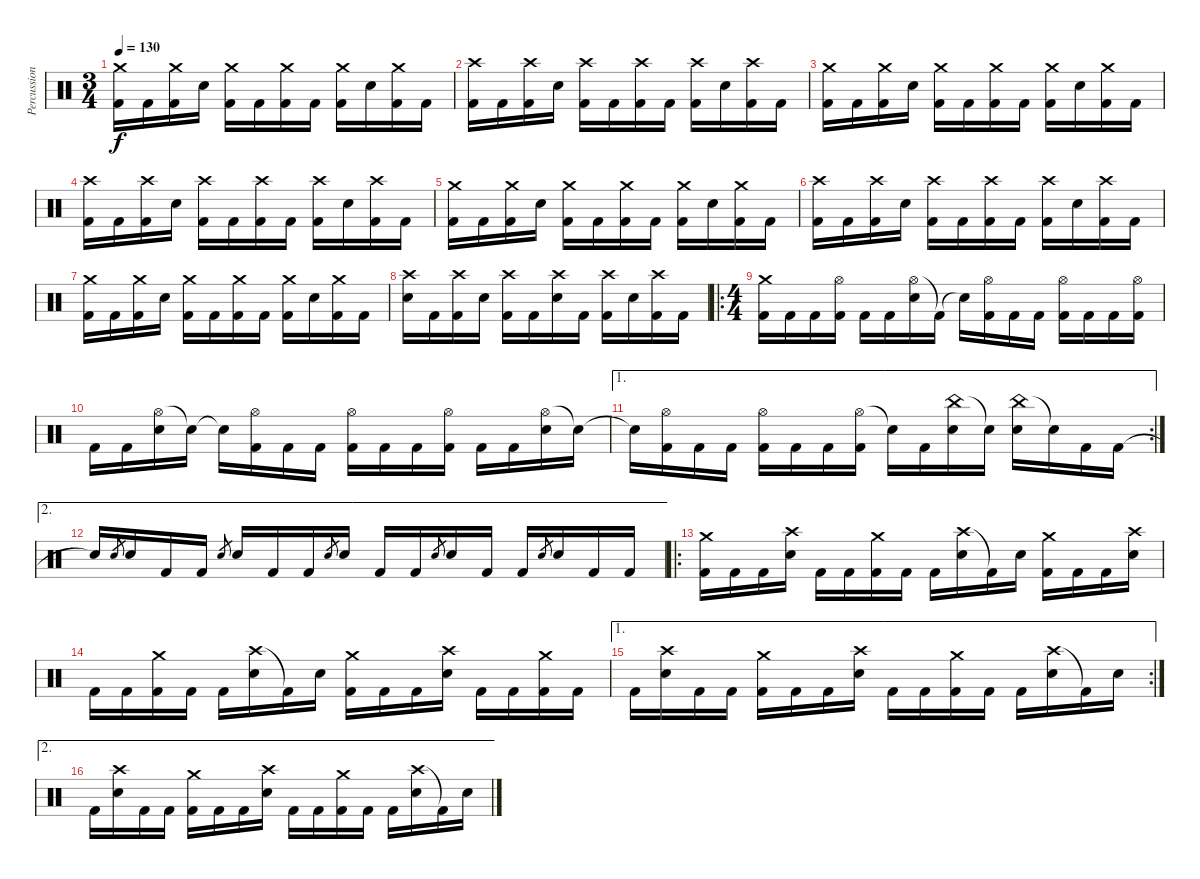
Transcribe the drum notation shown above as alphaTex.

\track ("Percussion" "Percussion") {instrument percussion}
\staff {score}
\articulation defaults
\ts (3 4)
\tempo 130
\clef neutral
\ks c
("Crash medium (hit)" "Kick (hit) 2").16{dy f} "Kick (hit) 2".16 ("Crash medium (hit)" "Kick (hit) 2").16 "Electric Snare (hit)".16 ("Crash medium (hit)" "Kick (hit) 2").16 "Kick (hit) 2".16 ("Crash medium (hit)" "Kick (hit) 2").16 "Kick (hit) 2".16 ("Crash medium (hit)" "Kick (hit) 2").16 "Electric Snare (hit)".16 ("Crash medium (hit)" "Kick (hit) 2").16 "Kick (hit) 2".16 |
("Crash high (hit)" "Kick (hit) 2").16 "Kick (hit) 2".16 ("Crash high (hit)" "Kick (hit) 2").16 "Electric Snare (hit)".16 ("Crash high (hit)" "Kick (hit) 2").16 "Kick (hit) 2".16 ("Crash high (hit)" "Kick (hit) 2").16 "Kick (hit) 2".16 ("Crash high (hit)" "Kick (hit) 2").16 "Electric Snare (hit)".16 ("Crash high (hit)" "Kick (hit) 2").16 "Kick (hit) 2".16 |
("Crash medium (hit)" "Kick (hit) 2").16 "Kick (hit) 2".16 ("Crash medium (hit)" "Kick (hit) 2").16 "Electric Snare (hit)".16 ("Crash medium (hit)" "Kick (hit) 2").16 "Kick (hit) 2".16 ("Crash medium (hit)" "Kick (hit) 2").16 "Kick (hit) 2".16 ("Crash medium (hit)" "Kick (hit) 2").16 "Electric Snare (hit)".16 ("Crash medium (hit)" "Kick (hit) 2").16 "Kick (hit) 2".16 |
("Crash high (hit)" "Kick (hit) 2").16 "Kick (hit) 2".16 ("Crash high (hit)" "Kick (hit) 2").16 "Electric Snare (hit)".16 ("Crash high (hit)" "Kick (hit) 2").16 "Kick (hit) 2".16 ("Crash high (hit)" "Kick (hit) 2").16 "Kick (hit) 2".16 ("Crash high (hit)" "Kick (hit) 2").16 "Electric Snare (hit)".16 ("Crash high (hit)" "Kick (hit) 2").16 "Kick (hit) 2".16 |
("Crash medium (hit)" "Kick (hit) 2").16 "Kick (hit) 2".16 ("Crash medium (hit)" "Kick (hit) 2").16 "Electric Snare (hit)".16 ("Crash medium (hit)" "Kick (hit) 2").16 "Kick (hit) 2".16 ("Crash medium (hit)" "Kick (hit) 2").16 "Kick (hit) 2".16 ("Crash medium (hit)" "Kick (hit) 2").16 "Electric Snare (hit)".16 ("Crash medium (hit)" "Kick (hit) 2").16 "Kick (hit) 2".16 |
("Crash high (hit)" "Kick (hit) 2").16 "Kick (hit) 2".16 ("Crash high (hit)" "Kick (hit) 2").16 "Electric Snare (hit)".16 ("Crash high (hit)" "Kick (hit) 2").16 "Kick (hit) 2".16 ("Crash high (hit)" "Kick (hit) 2").16 "Kick (hit) 2".16 ("Crash high (hit)" "Kick (hit) 2").16 "Electric Snare (hit)".16 ("Crash high (hit)" "Kick (hit) 2").16 "Kick (hit) 2".16 |
("Crash medium (hit)" "Kick (hit) 2").16 "Kick (hit) 2".16 ("Crash medium (hit)" "Kick (hit) 2").16 "Electric Snare (hit)".16 ("Crash medium (hit)" "Kick (hit) 2").16 "Kick (hit) 2".16 ("Crash medium (hit)" "Kick (hit) 2").16 "Kick (hit) 2".16 ("Crash medium (hit)" "Kick (hit) 2").16 "Electric Snare (hit)".16 ("Crash medium (hit)" "Kick (hit) 2").16 "Kick (hit) 2".16 |
("Crash high (hit)" "Electric Snare (hit)").16 "Kick (hit) 2".16 ("Crash high (hit)" "Kick (hit) 2").16 "Electric Snare (hit)".16 ("Crash high (hit)" "Kick (hit) 2").16 "Kick (hit) 2".16 ("Crash high (hit)" "Electric Snare (hit)").16 "Kick (hit) 2".16 ("Crash high (hit)" "Kick (hit) 2").16 "Electric Snare (hit)".16 ("Crash high (hit)" "Kick (hit) 2").16 "Kick (hit) 2".16 |
\ro
\ts (4 4)
("Crash medium (hit)" "Kick (hit) 2").16 "Kick (hit) 2".16 "Kick (hit) 2".16 ("Hi-Hat (open)" "Kick (hit) 2").16 "Kick (hit) 2".16 "Kick (hit) 2".16 ("Hi-Hat (open)" "Electric Snare (hit)").16 "Kick (hit) 2"{t}.16 "Snare (hit)"{t}.16 ("Hi-Hat (open)" "Kick (hit) 2").16 "Kick (hit) 2".16 "Kick (hit) 2".16 ("Hi-Hat (open)" "Kick (hit) 2").16 "Kick (hit) 2".16 "Kick (hit) 2".16 ("Hi-Hat (open)" "Kick (hit) 2").16 |
"Kick (hit) 2".16 "Kick (hit) 2".16 ("Hi-Hat (open)" "Electric Snare (hit)").16 "Snare (hit)"{t}.16 "Snare (hit)"{t}.16 ("Hi-Hat (open)" "Kick (hit) 2").16 "Kick (hit) 2".16 "Kick (hit) 2".16 ("Hi-Hat (open)" "Kick (hit) 2").16 "Kick (hit) 2".16 "Kick (hit) 2".16 ("Hi-Hat (open)" "Kick (hit) 2").16 "Kick (hit) 2".16 "Kick (hit) 2".16 ("Hi-Hat (open)" "Electric Snare (hit)").16 "Snare (hit)"{t}.16 |
\ae 1
\rc 2 "Snare (hit)"{t}.16
("Hi-Hat (open)" "Kick (hit) 2").16 "Kick (hit) 2".16 "Kick (hit) 2".16 ("Hi-Hat (open)" "Kick (hit) 2").16 "Kick (hit) 2".16 "Kick (hit) 2".16 ("Hi-Hat (open)" "Kick (hit) 2").16 "Snare (hit)"{t}.16 "Kick (hit) 2".16 ("China (hit)" "Electric Snare (hit)").16 "Snare (hit)"{t}.16 ("China (hit)" "Electric Snare (hit)").16 "Snare (hit)"{t}.16 "Kick (hit) 2".16 "Kick (hit) 2".16 |
\ae 2 "Snare (hit)"{t}.16 "Electric Snare (hit)".8{gr} "Electric Snare (hit)".16 "Kick (hit) 2".16 "Kick (hit) 2".16 "Electric Snare (hit)".8{gr} "Electric Snare (hit)".16 "Kick (hit) 2".16 "Kick (hit) 2".16 "Electric Snare (hit)".8{gr} "Electric Snare (hit)".16 "Kick (hit) 2".16 "Kick (hit) 2".16 "Electric Snare (hit)".8{gr} "Electric Snare (hit)".16 "Kick (hit) 2".16 "Kick (hit) 2".16 "Electric Snare (hit)".8{gr} "Electric Snare (hit)".16 "Kick (hit) 2".16 "Kick (hit) 2".16
|
\ro
("Crash medium (hit)" "Kick (hit) 2").16 "Kick (hit) 2".16 "Kick (hit) 2".16 ("Crash high (hit)" "Electric Snare (hit)").16 "Kick (hit) 2".16 "Kick (hit) 2".16 ("Crash medium (hit)" "Kick (hit) 2").16 "Kick (hit) 2".16 "Kick (hit) 2".16 ("Crash high (hit)" "Electric Snare (hit)").16 "Kick (hit) 2"{t}.16 "Electric Snare (hit)".16 ("Crash medium (hit)" "Kick (hit) 2").16 "Kick (hit) 2".16 "Kick (hit) 2".16 ("Crash high (hit)" "Electric Snare (hit)").16 |
"Kick (hit) 2".16 "Kick (hit) 2".16 ("Crash medium (hit)" "Kick (hit) 2").16 "Kick (hit) 2".16 "Kick (hit) 2".16 ("Crash high (hit)" "Electric Snare (hit)").16 "Kick (hit) 2"{t}.16 "Electric Snare (hit)".16 ("Crash medium (hit)" "Kick (hit) 2").16 "Kick (hit) 2".16 "Kick (hit) 2".16 ("Crash high (hit)" "Electric Snare (hit)").16 "Kick (hit) 2".16 "Kick (hit) 2".16 ("Crash medium (hit)" "Kick (hit) 2").16 "Kick (hit) 2".16 |
\ae 1
\rc 2 "Kick (hit) 2".16
("Crash high (hit)" "Electric Snare (hit)").16 "Kick (hit) 2".16 "Kick (hit) 2".16 ("Crash medium (hit)" "Kick (hit) 2").16 "Kick (hit) 2".16 "Kick (hit) 2".16 ("Crash high (hit)" "Electric Snare (hit)").16 "Kick (hit) 2".16 "Kick (hit) 2".16 ("Crash medium (hit)" "Kick (hit) 2").16 "Kick (hit) 2".16 "Kick (hit) 2".16 ("Crash high (hit)" "Electric Snare (hit)").16 "Kick (hit) 2"{t}.16 "Electric Snare (hit)".16 |
\ae 2 "Kick (hit) 2".16
("Crash high (hit)" "Electric Snare (hit)").16 "Kick (hit) 2".16 "Kick (hit) 2".16 ("Crash medium (hit)" "Kick (hit) 2").16 "Kick (hit) 2".16 "Kick (hit) 2".16 ("Crash high (hit)" "Electric Snare (hit)").16 "Kick (hit) 2".16 "Kick (hit) 2".16 ("Crash medium (hit)" "Kick (hit) 2").16 "Kick (hit) 2".16 "Kick (hit) 2".16 ("Crash high (hit)" "Electric Snare (hit)").16 "Kick (hit) 2"{t}.16 "Electric Snare (hit)".16
